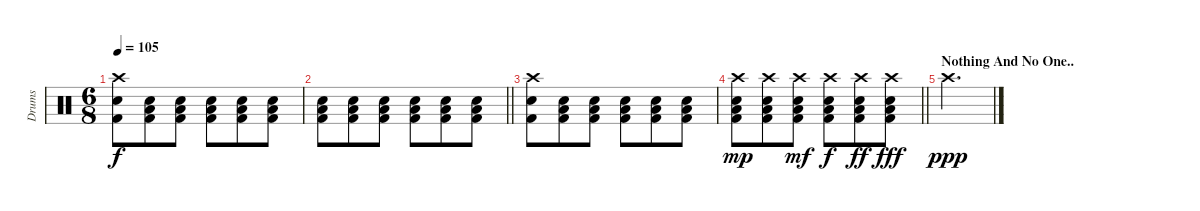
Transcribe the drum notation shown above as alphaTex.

\track ("Drums" "Drums") {instrument percussion}
\staff {score}
\articulation defaults
\ts (6 8)
\tempo 105
\clef neutral
\ks c
("Crash high (hit)" "Electric Snare (hit)" "Kick (hit) 2").8{dy f} ("Electric Snare (hit)" "Low Floor Tom (hit)" "Kick (hit) 2").8 ("Electric Snare (hit)" "Low Floor Tom (hit)" "Kick (hit) 2").8 ("Electric Snare (hit)" "Low Floor Tom (hit)" "Kick (hit) 2").8 ("Electric Snare (hit)" "Low Floor Tom (hit)" "Kick (hit) 2").8 ("Electric Snare (hit)" "Low Floor Tom (hit)" "Kick (hit) 2").8 |
\barLineRight lightlight
("Electric Snare (hit)" "Low Floor Tom (hit)" "Kick (hit) 2").8 ("Electric Snare (hit)" "Low Floor Tom (hit)" "Kick (hit) 2").8 ("Electric Snare (hit)" "Low Floor Tom (hit)" "Kick (hit) 2").8 ("Electric Snare (hit)" "Low Floor Tom (hit)" "Kick (hit) 2").8 ("Electric Snare (hit)" "Low Floor Tom (hit)" "Kick (hit) 2").8 ("Electric Snare (hit)" "Low Floor Tom (hit)" "Kick (hit) 2").8 |
("Crash high (hit)" "Electric Snare (hit)" "Kick (hit) 2").8 ("Electric Snare (hit)" "Low Floor Tom (hit)" "Kick (hit) 2").8 ("Electric Snare (hit)" "Low Floor Tom (hit)" "Kick (hit) 2").8 ("Electric Snare (hit)" "Low Floor Tom (hit)" "Kick (hit) 2").8 ("Electric Snare (hit)" "Low Floor Tom (hit)" "Kick (hit) 2").8 ("Electric Snare (hit)" "Low Floor Tom (hit)" "Kick (hit) 2").8 |
\barLineRight lightlight
("Crash high (hit)" "Electric Snare (hit)" "Low Floor Tom (hit)" "Kick (hit) 2").8{dy mp} ("Crash high (hit)" "Electric Snare (hit)" "Low Floor Tom (hit)" "Kick (hit) 2").8 ("Crash high (hit)" "Electric Snare (hit)" "Low Floor Tom (hit)" "Kick (hit) 2").8{dy mf} ("Crash high (hit)" "Electric Snare (hit)" "Low Floor Tom (hit)" "Kick (hit) 2").8{dy f} ("Crash high (hit)" "Electric Snare (hit)" "Low Floor Tom (hit)" "Kick (hit) 2").8{dy ff} ("Crash high (hit)" "Electric Snare (hit)" "Low Floor Tom (hit)" "Kick (hit) 2").8{dy fff} |
\section ("" "Nothing And No One..")
"Crash high (hit)".2{d dy ppp}
